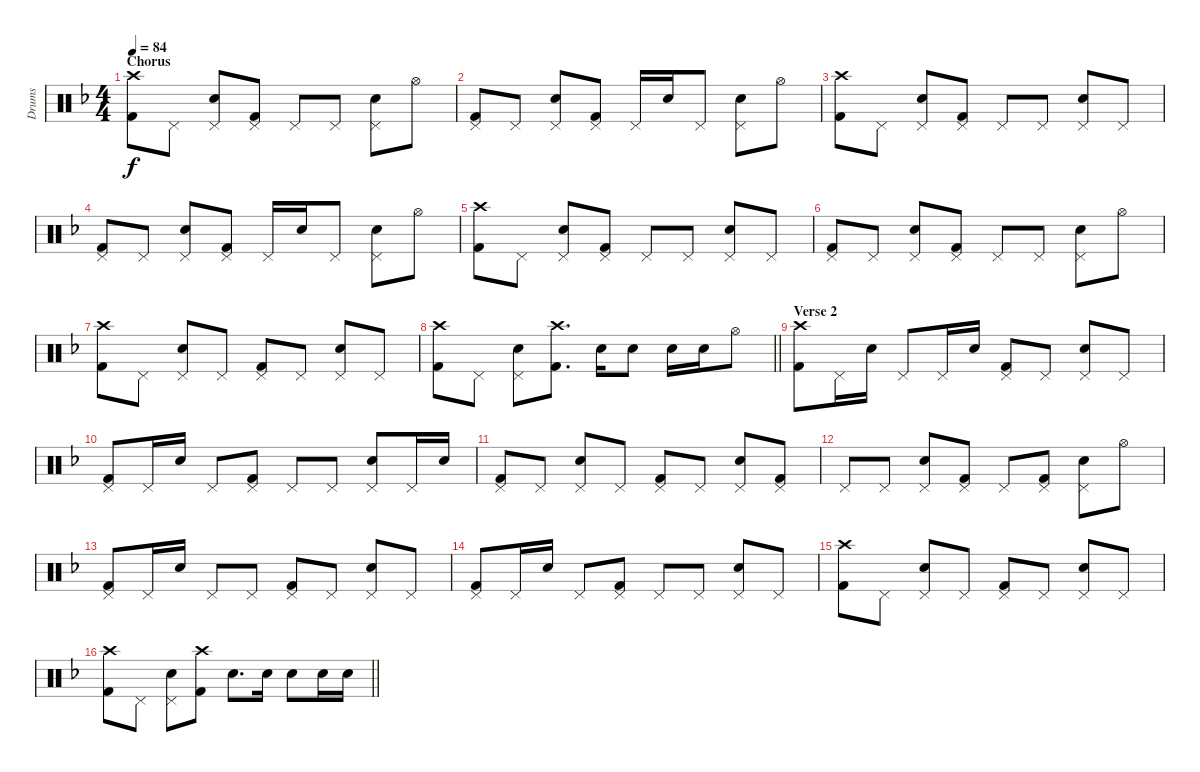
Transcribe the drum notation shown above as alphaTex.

\track ("Drums" "Drums") {instrument percussion}
\staff {score}
\articulation defaults
\ts (4 4)
\section ("" "Chorus")
\tempo 84
\clef neutral
\ks f
("Crash high (hit)" "Kick (hit) 2").8{dy f} "Pedal Hi-Hat (hit)".8 ("Pedal Hi-Hat (hit)" "Snare (hit) 2").8 ("Pedal Hi-Hat (hit)" "Kick (hit) 2").8 "Pedal Hi-Hat (hit)".8 "Pedal Hi-Hat (hit)".8 ("Pedal Hi-Hat (hit)" "Snare (hit) 2").8 "Hi-Hat (open)".8 |
("Pedal Hi-Hat (hit)" "Kick (hit) 2").8 "Pedal Hi-Hat (hit)".8 ("Pedal Hi-Hat (hit)" "Snare (hit) 2").8 ("Pedal Hi-Hat (hit)" "Kick (hit) 2").8 "Pedal Hi-Hat (hit)".16 "Snare (hit) 2".16 "Pedal Hi-Hat (hit)".8 ("Pedal Hi-Hat (hit)" "Snare (hit) 2").8 "Hi-Hat (open)".8 |
("Crash high (hit)" "Kick (hit) 2").8 "Pedal Hi-Hat (hit)".8 ("Pedal Hi-Hat (hit)" "Snare (hit) 2").8 ("Pedal Hi-Hat (hit)" "Kick (hit) 2").8 "Pedal Hi-Hat (hit)".8 "Pedal Hi-Hat (hit)".8 ("Pedal Hi-Hat (hit)" "Snare (hit) 2").8 "Pedal Hi-Hat (hit)".8 |
("Pedal Hi-Hat (hit)" "Kick (hit) 2").8 "Pedal Hi-Hat (hit)".8 ("Pedal Hi-Hat (hit)" "Snare (hit) 2").8 ("Pedal Hi-Hat (hit)" "Kick (hit) 2").8 "Pedal Hi-Hat (hit)".16 "Snare (hit) 2".16 "Pedal Hi-Hat (hit)".8 ("Pedal Hi-Hat (hit)" "Snare (hit) 2").8 "Hi-Hat (open)".8 |
("Crash high (hit)" "Kick (hit) 2").8 "Pedal Hi-Hat (hit)".8 ("Pedal Hi-Hat (hit)" "Snare (hit) 2").8 ("Pedal Hi-Hat (hit)" "Kick (hit) 2").8 "Pedal Hi-Hat (hit)".8 "Pedal Hi-Hat (hit)".8 ("Pedal Hi-Hat (hit)" "Snare (hit) 2").8 "Pedal Hi-Hat (hit)".8 |
("Pedal Hi-Hat (hit)" "Kick (hit) 2").8 "Pedal Hi-Hat (hit)".8 ("Pedal Hi-Hat (hit)" "Snare (hit) 2").8 ("Pedal Hi-Hat (hit)" "Kick (hit) 2").8 "Pedal Hi-Hat (hit)".8 "Pedal Hi-Hat (hit)".8 ("Pedal Hi-Hat (hit)" "Snare (hit) 2").8 "Hi-Hat (open)".8 |
("Crash high (hit)" "Kick (hit) 2").8 "Pedal Hi-Hat (hit)".8 ("Pedal Hi-Hat (hit)" "Snare (hit) 2").8 "Pedal Hi-Hat (hit)".8 ("Pedal Hi-Hat (hit)" "Kick (hit) 2").8 "Pedal Hi-Hat (hit)".8 ("Pedal Hi-Hat (hit)" "Snare (hit) 2").8 "Pedal Hi-Hat (hit)".8 |
\barLineRight lightlight
("Crash high (hit)" "Kick (hit) 2").8 "Pedal Hi-Hat (hit)".8 ("Pedal Hi-Hat (hit)" "Snare (hit) 2").8 ("Crash high (hit)" "Kick (hit) 2").8{d} "Snare (hit) 2".16 "Snare (hit) 2".8 "Snare (hit) 2".16 "Snare (hit) 2".16 "Hi-Hat (open)".8 |
\section ("" "Verse 2")
("Crash high (hit)" "Kick (hit) 2").8 "Pedal Hi-Hat (hit)".16 "Snare (hit) 2".16 "Pedal Hi-Hat (hit)".8 "Pedal Hi-Hat (hit)".16 "Snare (hit) 2".16 ("Pedal Hi-Hat (hit)" "Kick (hit) 2").8 "Pedal Hi-Hat (hit)".8 ("Pedal Hi-Hat (hit)" "Snare (hit) 2").8 "Pedal Hi-Hat (hit)".8 |
("Pedal Hi-Hat (hit)" "Kick (hit) 2").8 "Pedal Hi-Hat (hit)".16 "Snare (hit) 2".16 "Pedal Hi-Hat (hit)".8 ("Pedal Hi-Hat (hit)" "Kick (hit) 2").8 "Pedal Hi-Hat (hit)".8 "Pedal Hi-Hat (hit)".8 ("Pedal Hi-Hat (hit)" "Snare (hit) 2").8 "Pedal Hi-Hat (hit)".16 "Snare (hit) 2".16 |
("Pedal Hi-Hat (hit)" "Kick (hit) 2").8 "Pedal Hi-Hat (hit)".8 ("Pedal Hi-Hat (hit)" "Snare (hit) 2").8 "Pedal Hi-Hat (hit)".8 ("Pedal Hi-Hat (hit)" "Kick (hit) 2").8 "Pedal Hi-Hat (hit)".8 ("Pedal Hi-Hat (hit)" "Snare (hit) 2").8 ("Pedal Hi-Hat (hit)" "Kick (hit) 2").8 |
"Pedal Hi-Hat (hit)".8 "Pedal Hi-Hat (hit)".8 ("Pedal Hi-Hat (hit)" "Snare (hit) 2").8 ("Pedal Hi-Hat (hit)" "Kick (hit) 2").8 "Pedal Hi-Hat (hit)".8 ("Pedal Hi-Hat (hit)" "Kick (hit) 2").8 ("Pedal Hi-Hat (hit)" "Snare (hit) 2").8 "Hi-Hat (open)".8 |
("Pedal Hi-Hat (hit)" "Kick (hit) 2").8 "Pedal Hi-Hat (hit)".16 "Snare (hit) 2".16 "Pedal Hi-Hat (hit)".8 "Pedal Hi-Hat (hit)".8 ("Pedal Hi-Hat (hit)" "Kick (hit) 2").8 "Pedal Hi-Hat (hit)".8 ("Pedal Hi-Hat (hit)" "Snare (hit) 2").8 "Pedal Hi-Hat (hit)".8 |
("Pedal Hi-Hat (hit)" "Kick (hit) 2").8 "Pedal Hi-Hat (hit)".16 "Snare (hit) 2".16 "Pedal Hi-Hat (hit)".8 ("Pedal Hi-Hat (hit)" "Kick (hit) 2").8 "Pedal Hi-Hat (hit)".8 "Pedal Hi-Hat (hit)".8 ("Pedal Hi-Hat (hit)" "Snare (hit) 2").8 "Pedal Hi-Hat (hit)".8 |
("Crash high (hit)" "Kick (hit) 2").8 "Pedal Hi-Hat (hit)".8 ("Pedal Hi-Hat (hit)" "Snare (hit) 2").8 "Pedal Hi-Hat (hit)".8 ("Pedal Hi-Hat (hit)" "Kick (hit) 2").8 "Pedal Hi-Hat (hit)".8 ("Pedal Hi-Hat (hit)" "Snare (hit) 2").8 "Pedal Hi-Hat (hit)".8 |
\barLineRight lightlight
("Crash high (hit)" "Kick (hit) 2").8 "Pedal Hi-Hat (hit)".8 ("Pedal Hi-Hat (hit)" "Snare (hit) 2").8 ("Crash high (hit)" "Kick (hit) 2").8 "Snare (hit) 2".8{d} "Snare (hit) 2".16 "Snare (hit) 2".8 "Snare (hit) 2".16 "Snare (hit) 2".16
